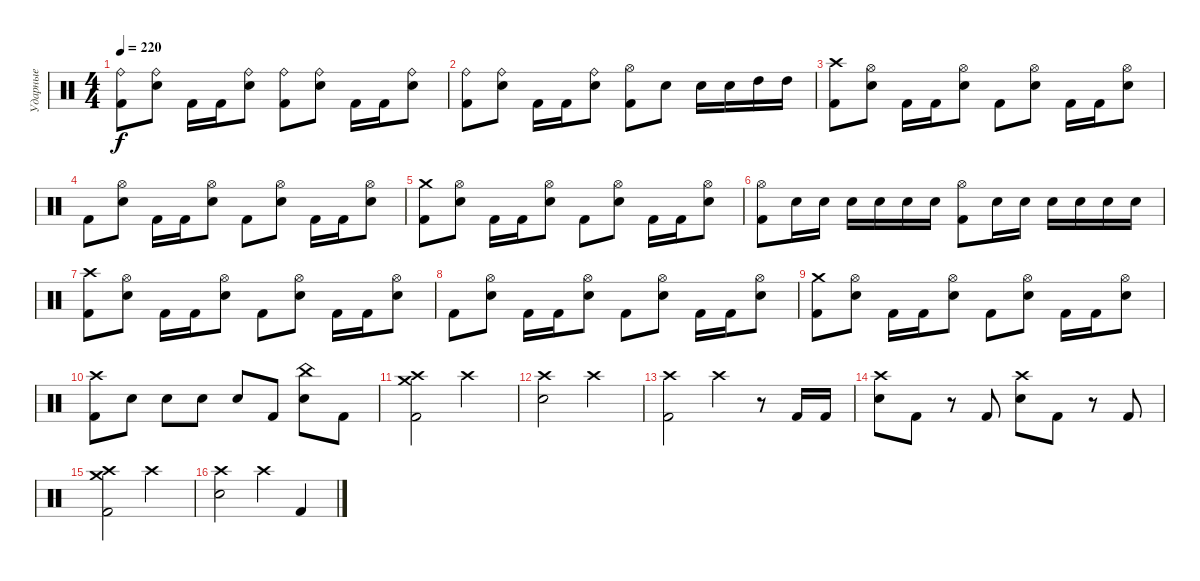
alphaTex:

\track ("Ударные" "Ударные") {instrument percussion}
\staff {score}
\articulation defaults
\ts (4 4)
\tempo 220
\clef neutral
\ks c
("Ride (bell)" "Kick (hit) 2").8{dy f} ("Ride (bell)" "Electric Snare (hit)").8 "Kick (hit) 2".16 "Kick (hit) 2".16 ("Ride (bell)" "Electric Snare (hit)").8 ("Ride (bell)" "Kick (hit) 2").8 ("Ride (bell)" "Electric Snare (hit)").8 "Kick (hit) 2".16 "Kick (hit) 2".16 ("Ride (bell)" "Electric Snare (hit)").8 |
("Ride (bell)" "Kick (hit) 2").8 ("Ride (bell)" "Electric Snare (hit)").8 "Kick (hit) 2".16 "Kick (hit) 2".16 ("Ride (bell)" "Electric Snare (hit)").8 ("Hi-Hat (open)" "Kick (hit) 2").8 "Electric Snare (hit)".8 "Electric Snare (hit)".16 "Electric Snare (hit)".16 "High Tom (hit)".16 "High Tom (hit)".16 |
("Crash high (hit)" "Kick (hit) 2").8 ("Hi-Hat (open)" "Electric Snare (hit)").8 "Kick (hit) 2".16 "Kick (hit) 2".16 ("Hi-Hat (open)" "Electric Snare (hit)").8 "Kick (hit) 2".8 ("Hi-Hat (open)" "Electric Snare (hit)").8 "Kick (hit) 2".16 "Kick (hit) 2".16 ("Hi-Hat (open)" "Electric Snare (hit)").8 |
"Kick (hit) 2".8 ("Hi-Hat (open)" "Electric Snare (hit)").8 "Kick (hit) 2".16 "Kick (hit) 2".16 ("Hi-Hat (open)" "Electric Snare (hit)").8 "Kick (hit) 2".8 ("Hi-Hat (open)" "Electric Snare (hit)").8 "Kick (hit) 2".16 "Kick (hit) 2".16 ("Hi-Hat (open)" "Electric Snare (hit)").8 |
("Crash medium (hit)" "Kick (hit) 2").8 ("Hi-Hat (open)" "Electric Snare (hit)").8 "Kick (hit) 2".16 "Kick (hit) 2".16 ("Hi-Hat (open)" "Electric Snare (hit)").8 "Kick (hit) 2".8 ("Hi-Hat (open)" "Electric Snare (hit)").8 "Kick (hit) 2".16 "Kick (hit) 2".16 ("Hi-Hat (open)" "Electric Snare (hit)").8 |
("Hi-Hat (open)" "Kick (hit) 2").8 "Electric Snare (hit)".16 "Electric Snare (hit)".16 "Electric Snare (hit)".16 "Electric Snare (hit)".16 "Electric Snare (hit)".16 "Electric Snare (hit)".16 ("Hi-Hat (open)" "Kick (hit) 2").8 "Electric Snare (hit)".16 "Electric Snare (hit)".16 "Electric Snare (hit)".16 "Electric Snare (hit)".16 "Electric Snare (hit)".16 "Electric Snare (hit)".16 |
("Crash high (hit)" "Kick (hit) 2").8 ("Hi-Hat (open)" "Electric Snare (hit)").8 "Kick (hit) 2".16 "Kick (hit) 2".16 ("Hi-Hat (open)" "Electric Snare (hit)").8 "Kick (hit) 2".8 ("Hi-Hat (open)" "Electric Snare (hit)").8 "Kick (hit) 2".16 "Kick (hit) 2".16 ("Hi-Hat (open)" "Electric Snare (hit)").8 |
"Kick (hit) 2".8 ("Hi-Hat (open)" "Electric Snare (hit)").8 "Kick (hit) 2".16 "Kick (hit) 2".16 ("Hi-Hat (open)" "Electric Snare (hit)").8 "Kick (hit) 2".8 ("Hi-Hat (open)" "Electric Snare (hit)").8 "Kick (hit) 2".16 "Kick (hit) 2".16 ("Hi-Hat (open)" "Electric Snare (hit)").8 |
("Crash medium (hit)" "Kick (hit) 2").8 ("Hi-Hat (open)" "Electric Snare (hit)").8 "Kick (hit) 2".16 "Kick (hit) 2".16 ("Hi-Hat (open)" "Electric Snare (hit)").8 "Kick (hit) 2".8 ("Hi-Hat (open)" "Electric Snare (hit)").8 "Kick (hit) 2".16 "Kick (hit) 2".16 ("Hi-Hat (open)" "Electric Snare (hit)").8 |
("Crash high (hit)" "Kick (hit) 2").8 "Electric Snare (hit)".8 "Electric Snare (hit)".8 "Electric Snare (hit)".8 "Electric Snare (hit)".8 "Kick (hit) 2".8 ("China (hit)" "Electric Snare (hit)").8 "Kick (hit) 2".8 |
("Crash high (hit)" "Crash medium (hit)" "Kick (hit) 2").2 "Crash high (hit)".2 |
("Crash high (hit)" "Electric Snare (hit)").2 "Crash high (hit)".2 |
("Crash high (hit)" "Kick (hit) 2").2 "Crash high (hit)".4 r.8 "Kick (hit) 2".16 "Kick (hit) 2".16 |
("Crash high (hit)" "Electric Snare (hit)").8 "Kick (hit) 2".8 r.8 "Kick (hit) 2".8 ("Crash high (hit)" "Electric Snare (hit)").8 "Kick (hit) 2".8 r.8 "Kick (hit) 2".8 |
("Crash high (hit)" "Crash medium (hit)" "Kick (hit) 2").2 "Crash high (hit)".2 |
("Crash high (hit)" "Electric Snare (hit)").2 "Crash high (hit)".4 "Kick (hit) 2".4
